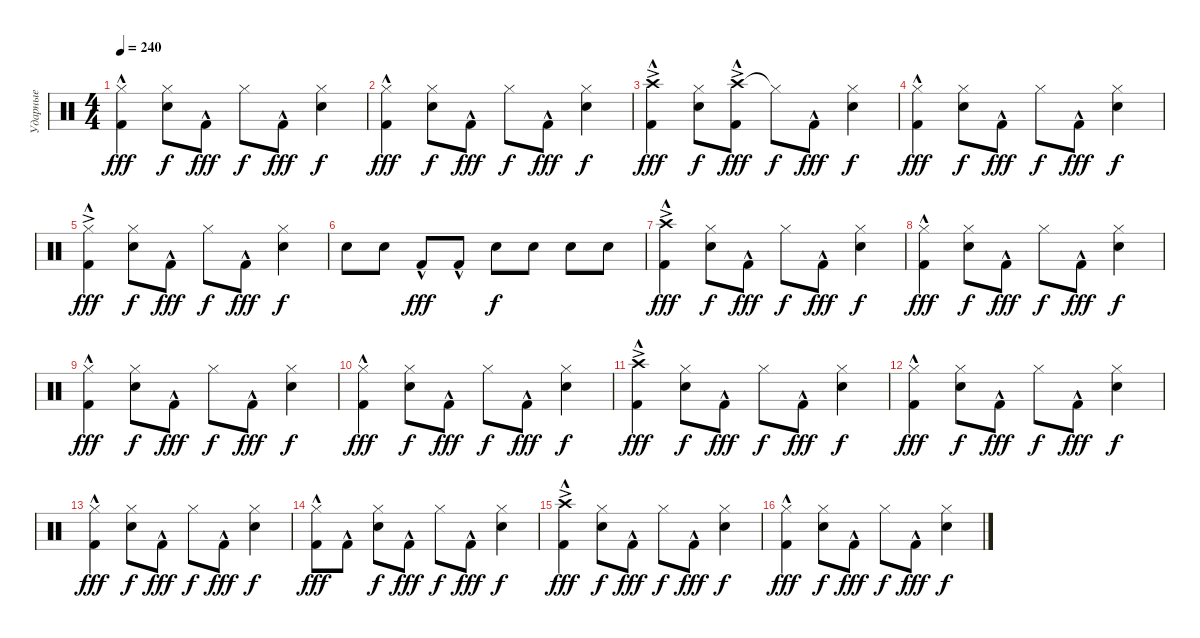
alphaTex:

\track ("Ударные" "Ударные") {instrument percussion}
\staff {score}
\articulation defaults
\ts (4 4)
\tempo 240
\clef neutral
\ks c
("Hi-Hat (closed)" "Kick (hit) 2"{hac}).4{dy fff} ("Hi-Hat (closed)" "Snare (hit) 2").8{dy f} "Kick (hit) 2"{hac}.8{dy fff} "Hi-Hat (closed)".8{dy f} "Kick (hit) 2"{hac}.8{dy fff} ("Hi-Hat (closed)" "Snare (hit) 2").4{dy f} |
("Hi-Hat (closed)" "Kick (hit) 2"{hac}).4{dy fff} ("Hi-Hat (closed)" "Snare (hit) 2").8{dy f} "Kick (hit) 2"{hac}.8{dy fff} "Hi-Hat (closed)".8{dy f} "Kick (hit) 2"{hac}.8{dy fff} ("Hi-Hat (closed)" "Snare (hit) 2").4{dy f} |
("Crash high (hit)"{ac} "Kick (hit) 2"{hac}).4{dy fff} ("Hi-Hat (closed)" "Snare (hit) 2").8{dy f} ("Crash high (hit)"{ac} "Kick (hit) 2"{hac}).8{dy fff} "Hi-Hat (closed)"{t}.8{dy f} "Kick (hit) 2"{hac}.8{dy fff} ("Hi-Hat (closed)" "Snare (hit) 2").4{dy f} |
("Hi-Hat (closed)" "Kick (hit) 2"{hac}).4{dy fff} ("Hi-Hat (closed)" "Snare (hit) 2").8{dy f} "Kick (hit) 2"{hac}.8{dy fff} "Hi-Hat (closed)".8{dy f} "Kick (hit) 2"{hac}.8{dy fff} ("Hi-Hat (closed)" "Snare (hit) 2").4{dy f} |
("Hi-Hat (closed)"{ac} "Kick (hit) 2"{hac}).4{dy fff} ("Hi-Hat (closed)" "Snare (hit) 2").8{dy f} "Kick (hit) 2"{hac}.8{dy fff} "Hi-Hat (closed)".8{dy f} "Kick (hit) 2"{hac}.8{dy fff} ("Hi-Hat (closed)" "Snare (hit) 2").4{dy f} |
"Snare (hit) 2".8 "Snare (hit) 2".8 "Kick (hit) 2"{hac}.8{dy fff} "Kick (hit) 2"{hac}.8 "Snare (hit) 2".8{dy f} "Snare (hit) 2".8 "Snare (hit) 2".8 "Snare (hit) 2".8 |
("Crash high (hit)"{ac} "Kick (hit) 2"{hac}).4{dy fff} ("Hi-Hat (closed)" "Snare (hit) 2").8{dy f} "Kick (hit) 2"{hac}.8{dy fff} "Hi-Hat (closed)".8{dy f} "Kick (hit) 2"{hac}.8{dy fff} ("Hi-Hat (closed)" "Snare (hit) 2").4{dy f} |
("Hi-Hat (closed)" "Kick (hit) 2"{hac}).4{dy fff} ("Hi-Hat (closed)" "Snare (hit) 2").8{dy f} "Kick (hit) 2"{hac}.8{dy fff} "Hi-Hat (closed)".8{dy f} "Kick (hit) 2"{hac}.8{dy fff} ("Hi-Hat (closed)" "Snare (hit) 2").4{dy f} |
("Hi-Hat (closed)" "Kick (hit) 2"{hac}).4{dy fff} ("Hi-Hat (closed)" "Snare (hit) 2").8{dy f} "Kick (hit) 2"{hac}.8{dy fff} "Hi-Hat (closed)".8{dy f} "Kick (hit) 2"{hac}.8{dy fff} ("Hi-Hat (closed)" "Snare (hit) 2").4{dy f} |
("Hi-Hat (closed)" "Kick (hit) 2"{hac}).4{dy fff} ("Hi-Hat (closed)" "Snare (hit) 2").8{dy f} "Kick (hit) 2"{hac}.8{dy fff} "Hi-Hat (closed)".8{dy f} "Kick (hit) 2"{hac}.8{dy fff} ("Hi-Hat (closed)" "Snare (hit) 2").4{dy f} |
("Crash high (hit)"{ac} "Kick (hit) 2"{hac}).4{dy fff} ("Hi-Hat (closed)" "Snare (hit) 2").8{dy f} "Kick (hit) 2"{hac}.8{dy fff} "Hi-Hat (closed)".8{dy f} "Kick (hit) 2"{hac}.8{dy fff} ("Hi-Hat (closed)" "Snare (hit) 2").4{dy f} |
("Hi-Hat (closed)" "Kick (hit) 2"{hac}).4{dy fff} ("Hi-Hat (closed)" "Snare (hit) 2").8{dy f} "Kick (hit) 2"{hac}.8{dy fff} "Hi-Hat (closed)".8{dy f} "Kick (hit) 2"{hac}.8{dy fff} ("Hi-Hat (closed)" "Snare (hit) 2").4{dy f} |
("Hi-Hat (closed)" "Kick (hit) 2"{hac}).4{dy fff} ("Hi-Hat (closed)" "Snare (hit) 2").8{dy f} "Kick (hit) 2"{hac}.8{dy fff} "Hi-Hat (closed)".8{dy f} "Kick (hit) 2"{hac}.8{dy fff} ("Hi-Hat (closed)" "Snare (hit) 2").4{dy f} |
("Hi-Hat (closed)" "Kick (hit) 2"{hac}).8{dy fff} "Kick (hit) 2"{hac}.8 ("Hi-Hat (closed)" "Snare (hit) 2").8{dy f} "Kick (hit) 2"{hac}.8{dy fff} "Hi-Hat (closed)".8{dy f} "Kick (hit) 2"{hac}.8{dy fff} ("Hi-Hat (closed)" "Snare (hit) 2").4{dy f} |
("Crash high (hit)"{ac} "Kick (hit) 2"{hac}).4{dy fff} ("Hi-Hat (closed)" "Snare (hit) 2").8{dy f} "Kick (hit) 2"{hac}.8{dy fff} "Hi-Hat (closed)".8{dy f} "Kick (hit) 2"{hac}.8{dy fff} ("Hi-Hat (closed)" "Snare (hit) 2").4{dy f} |
("Hi-Hat (closed)" "Kick (hit) 2"{hac}).4{dy fff} ("Hi-Hat (closed)" "Snare (hit) 2").8{dy f} "Kick (hit) 2"{hac}.8{dy fff} "Hi-Hat (closed)".8{dy f} "Kick (hit) 2"{hac}.8{dy fff} ("Hi-Hat (closed)" "Snare (hit) 2").4{dy f}
